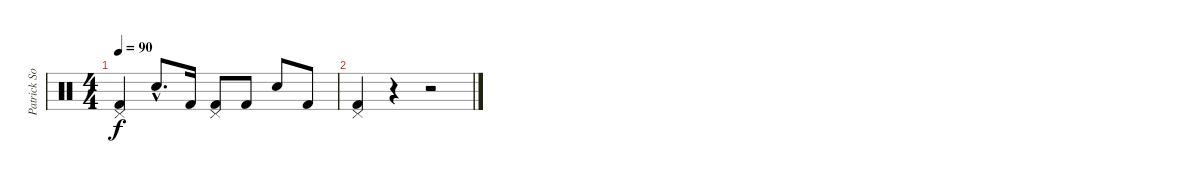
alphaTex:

\track ("Patrick Soria" "Patrick So") {instrument percussion}
\staff {score}
\articulation defaults
\ts (4 4)
\tempo 90
\clef neutral
\ks c
("Pedal Hi-Hat (hit)" "Kick (hit) 2").4{dy f} "Snare (hit) 2"{hac}.8{d} "Kick (hit) 2".16 ("Pedal Hi-Hat (hit)" "Kick (hit) 2").8 "Kick (hit) 2".8 "Snare (hit) 2".8 "Kick (hit) 2".8 |
("Pedal Hi-Hat (hit)" "Kick (hit) 2").4 r.4 r.2
